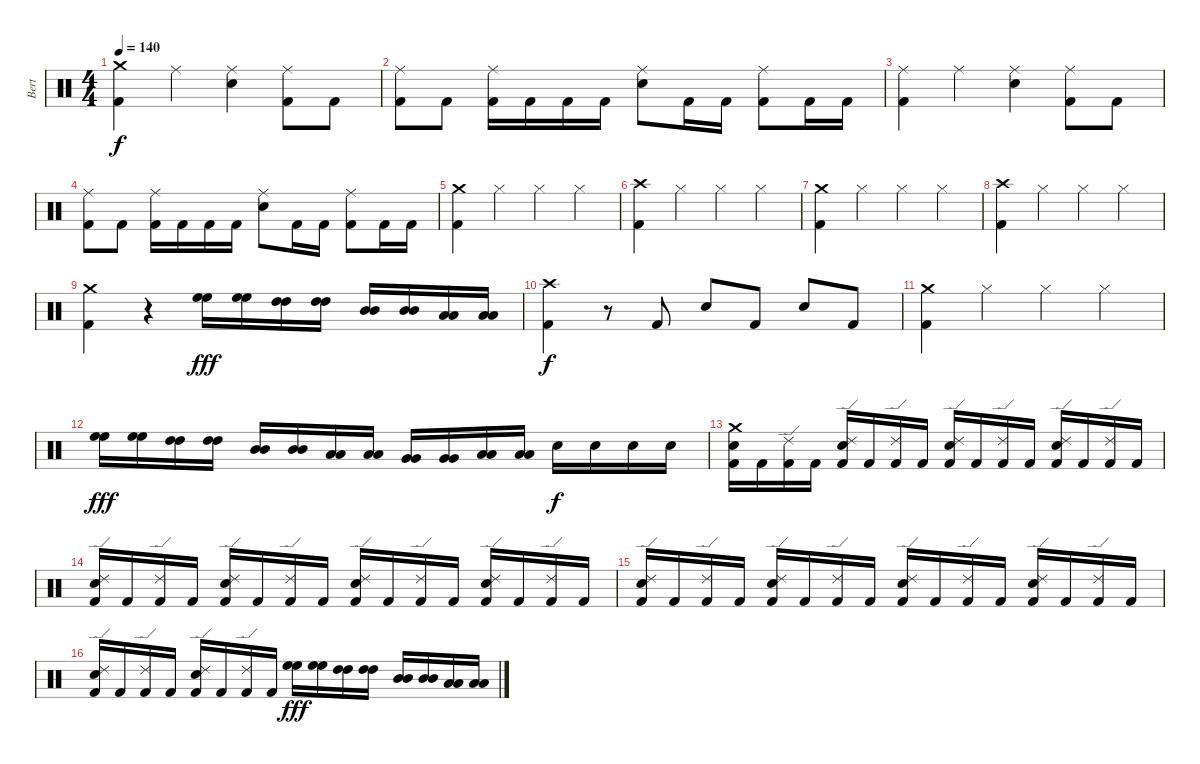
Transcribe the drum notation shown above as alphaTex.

\track ("Bert" "Bert") {instrument percussion}
\staff {score}
\articulation defaults
\ts (4 4)
\tempo 140
\clef neutral
\ks c
("Crash medium (hit)" "Kick (hit) 2").4{dy f} "Ride (middle)".4 ("Ride (middle)" "Snare (hit) 2").4 ("Ride (middle)" "Kick (hit) 2").8 "Kick (hit) 2".8 |
("Ride (middle)" "Kick (hit) 2").8 "Kick (hit) 2".8 ("Ride (middle)" "Kick (hit) 2").16 "Kick (hit) 2".16 "Kick (hit) 2".16 "Kick (hit) 2".16 ("Ride (middle)" "Snare (hit) 2").8 "Kick (hit) 2".16 "Kick (hit) 2".16 ("Ride (middle)" "Kick (hit) 2").8 "Kick (hit) 2".16 "Kick (hit) 2".16 |
("Ride (middle)" "Kick (hit) 2").4 "Ride (middle)".4 ("Ride (middle)" "Snare (hit) 2").4 ("Ride (middle)" "Kick (hit) 2").8 "Kick (hit) 2".8 |
("Ride (middle)" "Kick (hit) 2").8 "Kick (hit) 2".8 ("Ride (middle)" "Kick (hit) 2").16 "Kick (hit) 2".16 "Kick (hit) 2".16 "Kick (hit) 2".16 ("Ride (middle)" "Snare (hit) 2").8 "Kick (hit) 2".16 "Kick (hit) 2".16 ("Ride (middle)" "Kick (hit) 2").8 "Kick (hit) 2".16 "Kick (hit) 2".16 |
("Crash medium (hit)" "Kick (hit) 2").4 "Hi-Hat (closed)".4 "Hi-Hat (closed)".4 "Hi-Hat (closed)".4 |
("Crash high (hit)" "Kick (hit) 2").4 "Hi-Hat (closed)".4 "Hi-Hat (closed)".4 "Hi-Hat (closed)".4 |
("Crash medium (hit)" "Kick (hit) 2").4 "Hi-Hat (closed)".4 "Hi-Hat (closed)".4 "Hi-Hat (closed)".4 |
("Crash high (hit)" "Kick (hit) 2").4 "Hi-Hat (closed)".4 "Hi-Hat (closed)".4 "Hi-Hat (closed)".4 |
("Crash medium (hit)" "Kick (hit) 2").4 r.4 ("High Floor Tom (hit)" "High Floor Tom (hit)").16{dy fff} ("High Floor Tom (hit)" "High Floor Tom (hit)").16 ("High Tom (hit)" "High Tom (hit)").16 ("High Tom (hit)" "High Tom (hit)").16 ("Mid Tom (hit)" "Mid Tom (hit)").16 ("Mid Tom (hit)" "Mid Tom (hit)").16 ("Low Tom (hit)" "Low Tom (hit)").16 ("Low Tom (hit)" "Low Tom (hit)").16 |
("Crash high (hit)" "Kick (hit) 2").4{dy f} r.8 "Kick (hit) 2".8 "Snare (hit) 2".8 "Kick (hit) 2".8 "Snare (hit) 2".8 "Kick (hit) 2".8 |
("Crash medium (hit)" "Kick (hit) 2").4 "Hi-Hat (closed)".4 "Hi-Hat (closed)".4 "Hi-Hat (closed)".4 |
("High Floor Tom (hit)" "High Floor Tom (hit)").16{dy fff} ("High Floor Tom (hit)" "High Floor Tom (hit)").16 ("High Tom (hit)" "High Tom (hit)").16 ("High Tom (hit)" "High Tom (hit)").16 ("Mid Tom (hit)" "Mid Tom (hit)").16 ("Mid Tom (hit)" "Mid Tom (hit)").16 ("Low Tom (hit)" "Low Tom (hit)").16 ("Low Tom (hit)" "Low Tom (hit)").16 ("Very Low Tom (hit)" "Very Low Tom (hit)").16 ("Very Low Tom (hit)" "Very Low Tom (hit)").16 ("Low Floor Tom (hit)" "Low Floor Tom (hit)").16 ("Low Floor Tom (hit)" "Low Floor Tom (hit)").16 "Snare (hit) 2".16{dy f} "Snare (hit) 2".16 "Snare (hit) 2".16 "Snare (hit) 2".16 |
("Crash medium (hit)" "Snare (hit) 2" "Kick (hit) 2").16 "Kick (hit) 2".16 ("Ride (edge) 2" "Kick (hit) 2").16 "Kick (hit) 2".16 ("Ride (edge) 2" "Snare (hit) 2" "Kick (hit) 2").16 "Kick (hit) 2".16 ("Ride (edge) 2" "Kick (hit) 2").16 "Kick (hit) 2".16 ("Ride (edge) 2" "Snare (hit) 2" "Kick (hit) 2").16 "Kick (hit) 2".16 ("Ride (edge) 2" "Kick (hit) 2").16 "Kick (hit) 2".16 ("Ride (edge) 2" "Snare (hit) 2" "Kick (hit) 2").16 "Kick (hit) 2".16 ("Ride (edge) 2" "Kick (hit) 2").16 "Kick (hit) 2".16 |
("Ride (edge) 2" "Snare (hit) 2" "Kick (hit) 2").16 "Kick (hit) 2".16 ("Ride (edge) 2" "Kick (hit) 2").16 "Kick (hit) 2".16 ("Ride (edge) 2" "Snare (hit) 2" "Kick (hit) 2").16 "Kick (hit) 2".16 ("Ride (edge) 2" "Kick (hit) 2").16 "Kick (hit) 2".16 ("Ride (edge) 2" "Snare (hit) 2" "Kick (hit) 2").16 "Kick (hit) 2".16 ("Ride (edge) 2" "Kick (hit) 2").16 "Kick (hit) 2".16 ("Ride (edge) 2" "Snare (hit) 2" "Kick (hit) 2").16 "Kick (hit) 2".16 ("Ride (edge) 2" "Kick (hit) 2").16 "Kick (hit) 2".16 |
("Ride (edge) 2" "Snare (hit) 2" "Kick (hit) 2").16 "Kick (hit) 2".16 ("Ride (edge) 2" "Kick (hit) 2").16 "Kick (hit) 2".16 ("Ride (edge) 2" "Snare (hit) 2" "Kick (hit) 2").16 "Kick (hit) 2".16 ("Ride (edge) 2" "Kick (hit) 2").16 "Kick (hit) 2".16 ("Ride (edge) 2" "Snare (hit) 2" "Kick (hit) 2").16 "Kick (hit) 2".16 ("Ride (edge) 2" "Kick (hit) 2").16 "Kick (hit) 2".16 ("Ride (edge) 2" "Snare (hit) 2" "Kick (hit) 2").16 "Kick (hit) 2".16 ("Ride (edge) 2" "Kick (hit) 2").16 "Kick (hit) 2".16 |
("Ride (edge) 2" "Snare (hit) 2" "Kick (hit) 2").16 "Kick (hit) 2".16 ("Ride (edge) 2" "Kick (hit) 2").16 "Kick (hit) 2".16 ("Ride (edge) 2" "Snare (hit) 2" "Kick (hit) 2").16 "Kick (hit) 2".16 ("Ride (edge) 2" "Kick (hit) 2").16 "Kick (hit) 2".16 ("High Floor Tom (hit)" "High Floor Tom (hit)").16{dy fff} ("High Floor Tom (hit)" "High Floor Tom (hit)").16 ("High Tom (hit)" "High Tom (hit)").16 ("High Tom (hit)" "High Tom (hit)").16 ("Mid Tom (hit)" "Mid Tom (hit)").16 ("Mid Tom (hit)" "Mid Tom (hit)").16 ("Low Tom (hit)" "Low Tom (hit)").16 ("Low Tom (hit)" "Low Tom (hit)").16
